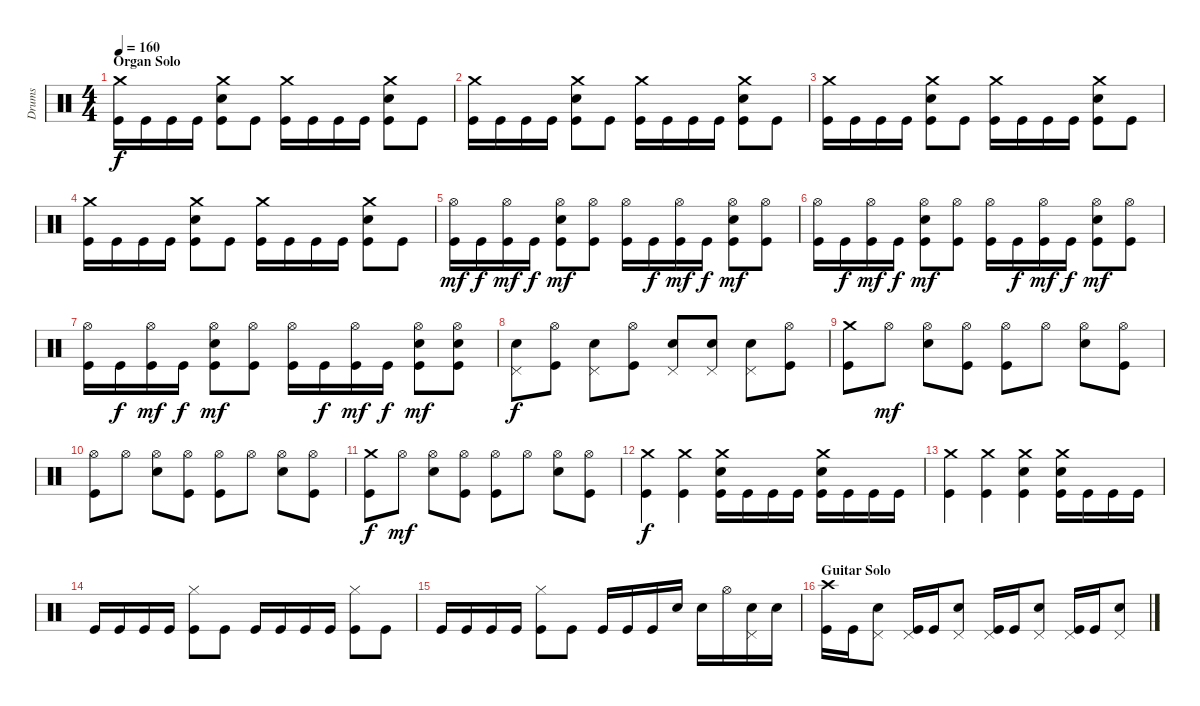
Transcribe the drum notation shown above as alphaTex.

\track ("Drums" "Drums") {instrument percussion}
\staff {score}
\articulation defaults
\ts (4 4)
\section ("" "Organ Solo")
\tempo 160
\clef neutral
\ks c
("Crash medium (hit)" "Kick (hit)").16{dy f} "Kick (hit)".16 "Kick (hit)".16 "Kick (hit)".16 ("Crash medium (hit)" "Electric Snare (hit)" "Kick (hit)").8 "Kick (hit)".8 ("Crash medium (hit)" "Kick (hit)").16 "Kick (hit)".16 "Kick (hit)".16 "Kick (hit)".16 ("Crash medium (hit)" "Electric Snare (hit)" "Kick (hit)").8 "Kick (hit)".8 |
("Crash medium (hit)" "Kick (hit)").16 "Kick (hit)".16 "Kick (hit)".16 "Kick (hit)".16 ("Crash medium (hit)" "Electric Snare (hit)" "Kick (hit)").8 "Kick (hit)".8 ("Crash medium (hit)" "Kick (hit)").16 "Kick (hit)".16 "Kick (hit)".16 "Kick (hit)".16 ("Crash medium (hit)" "Electric Snare (hit)" "Kick (hit)").8 "Kick (hit)".8 |
("Crash medium (hit)" "Kick (hit)").16 "Kick (hit)".16 "Kick (hit)".16 "Kick (hit)".16 ("Crash medium (hit)" "Electric Snare (hit)" "Kick (hit)").8 "Kick (hit)".8 ("Crash medium (hit)" "Kick (hit)").16 "Kick (hit)".16 "Kick (hit)".16 "Kick (hit)".16 ("Crash medium (hit)" "Electric Snare (hit)" "Kick (hit)").8 "Kick (hit)".8 |
("Crash medium (hit)" "Kick (hit)").16 "Kick (hit)".16 "Kick (hit)".16 "Kick (hit)".16 ("Crash medium (hit)" "Electric Snare (hit)" "Kick (hit)").8 "Kick (hit)".8 ("Crash medium (hit)" "Kick (hit)").16 "Kick (hit)".16 "Kick (hit)".16 "Kick (hit)".16 ("Crash medium (hit)" "Electric Snare (hit)" "Kick (hit)").8 "Kick (hit)".8 |
("Hi-Hat (open)" "Kick (hit)").16{dy mf} "Kick (hit)".16{dy f} ("Hi-Hat (open)" "Kick (hit)").16{dy mf} "Kick (hit)".16{dy f} ("Hi-Hat (open)" "Electric Snare (hit)" "Kick (hit)").8{dy mf} ("Hi-Hat (open)" "Kick (hit)").8 ("Hi-Hat (open)" "Kick (hit)").16 "Kick (hit)".16{dy f} ("Hi-Hat (open)" "Kick (hit)").16{dy mf} "Kick (hit)".16{dy f} ("Hi-Hat (open)" "Electric Snare (hit)" "Kick (hit)").8{dy mf} ("Hi-Hat (open)" "Kick (hit)").8 |
("Hi-Hat (open)" "Kick (hit)").16 "Kick (hit)".16{dy f} ("Hi-Hat (open)" "Kick (hit)").16{dy mf} "Kick (hit)".16{dy f} ("Hi-Hat (open)" "Electric Snare (hit)" "Kick (hit)").8{dy mf} ("Hi-Hat (open)" "Kick (hit)").8 ("Hi-Hat (open)" "Kick (hit)").16 "Kick (hit)".16{dy f} ("Hi-Hat (open)" "Kick (hit)").16{dy mf} "Kick (hit)".16{dy f} ("Hi-Hat (open)" "Electric Snare (hit)" "Kick (hit)").8{dy mf} ("Hi-Hat (open)" "Kick (hit)").8 |
("Hi-Hat (open)" "Kick (hit)").16 "Kick (hit)".16{dy f} ("Hi-Hat (open)" "Kick (hit)").16{dy mf} "Kick (hit)".16{dy f} ("Hi-Hat (open)" "Electric Snare (hit)" "Kick (hit)").8{dy mf} ("Hi-Hat (open)" "Kick (hit)").8 ("Hi-Hat (open)" "Kick (hit)").16 "Kick (hit)".16{dy f} ("Hi-Hat (open)" "Kick (hit)").16{dy mf} "Kick (hit)".16{dy f} ("Hi-Hat (open)" "Electric Snare (hit)" "Kick (hit)").8{dy mf} ("Hi-Hat (open)" "Electric Snare (hit)" "Kick (hit)").8 |
("Pedal Hi-Hat (hit)" "Electric Snare (hit)").8{dy f} ("Hi-Hat (open)" "Kick (hit)").8 ("Pedal Hi-Hat (hit)" "Electric Snare (hit)").8 ("Hi-Hat (open)" "Kick (hit)").8 ("Pedal Hi-Hat (hit)" "Electric Snare (hit)").8 ("Pedal Hi-Hat (hit)" "Electric Snare (hit)").8 ("Pedal Hi-Hat (hit)" "Electric Snare (hit)").8 ("Hi-Hat (open)" "Kick (hit)").8 |
("Crash medium (hit)" "Kick (hit)").8 "Hi-Hat (open)".8{dy mf} ("Hi-Hat (open)" "Electric Snare (hit)").8 ("Hi-Hat (open)" "Kick (hit)").8 ("Hi-Hat (open)" "Kick (hit)").8 "Hi-Hat (open)".8 ("Hi-Hat (open)" "Electric Snare (hit)").8 ("Hi-Hat (open)" "Kick (hit)").8 |
("Hi-Hat (open)" "Kick (hit)").8 "Hi-Hat (open)".8 ("Hi-Hat (open)" "Electric Snare (hit)").8 ("Hi-Hat (open)" "Kick (hit)").8 ("Hi-Hat (open)" "Kick (hit)").8 "Hi-Hat (open)".8 ("Hi-Hat (open)" "Electric Snare (hit)").8 ("Hi-Hat (open)" "Kick (hit)").8 |
("Crash medium (hit)" "Kick (hit)").8{dy f} "Hi-Hat (open)".8{dy mf} ("Hi-Hat (open)" "Electric Snare (hit)").8 ("Hi-Hat (open)" "Kick (hit)").8 ("Hi-Hat (open)" "Kick (hit)").8 "Hi-Hat (open)".8 ("Hi-Hat (open)" "Electric Snare (hit)").8 ("Hi-Hat (open)" "Kick (hit)").8 |
("Crash medium (hit)" "Kick (hit)").4{dy f} ("Crash medium (hit)" "Kick (hit)").4 ("Crash medium (hit)" "Electric Snare (hit)" "Kick (hit)").16 "Kick (hit)".16 "Kick (hit)".16 "Kick (hit)".16 ("Crash medium (hit)" "Electric Snare (hit)" "Kick (hit)").16 "Kick (hit)".16 "Kick (hit)".16 "Kick (hit)".16 |
("Crash medium (hit)" "Kick (hit)").4 ("Crash medium (hit)" "Kick (hit)").4 ("Crash medium (hit)" "Electric Snare (hit)" "Kick (hit)").4 ("Crash medium (hit)" "Electric Snare (hit)" "Kick (hit)").16 "Kick (hit)".16 "Kick (hit)".16 "Kick (hit)".16 |
"Kick (hit)".16 "Kick (hit)".16 "Kick (hit)".16 "Kick (hit)".16 ("Hi-Hat (closed)" "Kick (hit)").8 "Kick (hit)".8 "Kick (hit)".16 "Kick (hit)".16 "Kick (hit)".16 "Kick (hit)".16 ("Hi-Hat (closed)" "Kick (hit)").8 "Kick (hit)".8 |
"Kick (hit)".16 "Kick (hit)".16 "Kick (hit)".16 "Kick (hit)".16 ("Hi-Hat (closed)" "Kick (hit)").8 "Kick (hit)".8 "Kick (hit)".16 "Kick (hit)".16 "Kick (hit)".16 "Electric Snare (hit)".16 "Electric Snare (hit)".16 "Hi-Hat (open)".16 ("Pedal Hi-Hat (hit)" "Electric Snare (hit)").16 "Electric Snare (hit)".16 |
\section ("" "Guitar Solo")
("Crash high (hit)" "Kick (hit)").16 "Kick (hit)".16 ("Pedal Hi-Hat (hit)" "Electric Snare (hit)").8 ("Pedal Hi-Hat (hit)" "Kick (hit)").16 "Kick (hit)".16 ("Pedal Hi-Hat (hit)" "Electric Snare (hit)").8 ("Pedal Hi-Hat (hit)" "Kick (hit)").16 "Kick (hit)".16 ("Pedal Hi-Hat (hit)" "Electric Snare (hit)").8 ("Pedal Hi-Hat (hit)" "Kick (hit)").16 "Kick (hit)".16 ("Pedal Hi-Hat (hit)" "Electric Snare (hit)").8
